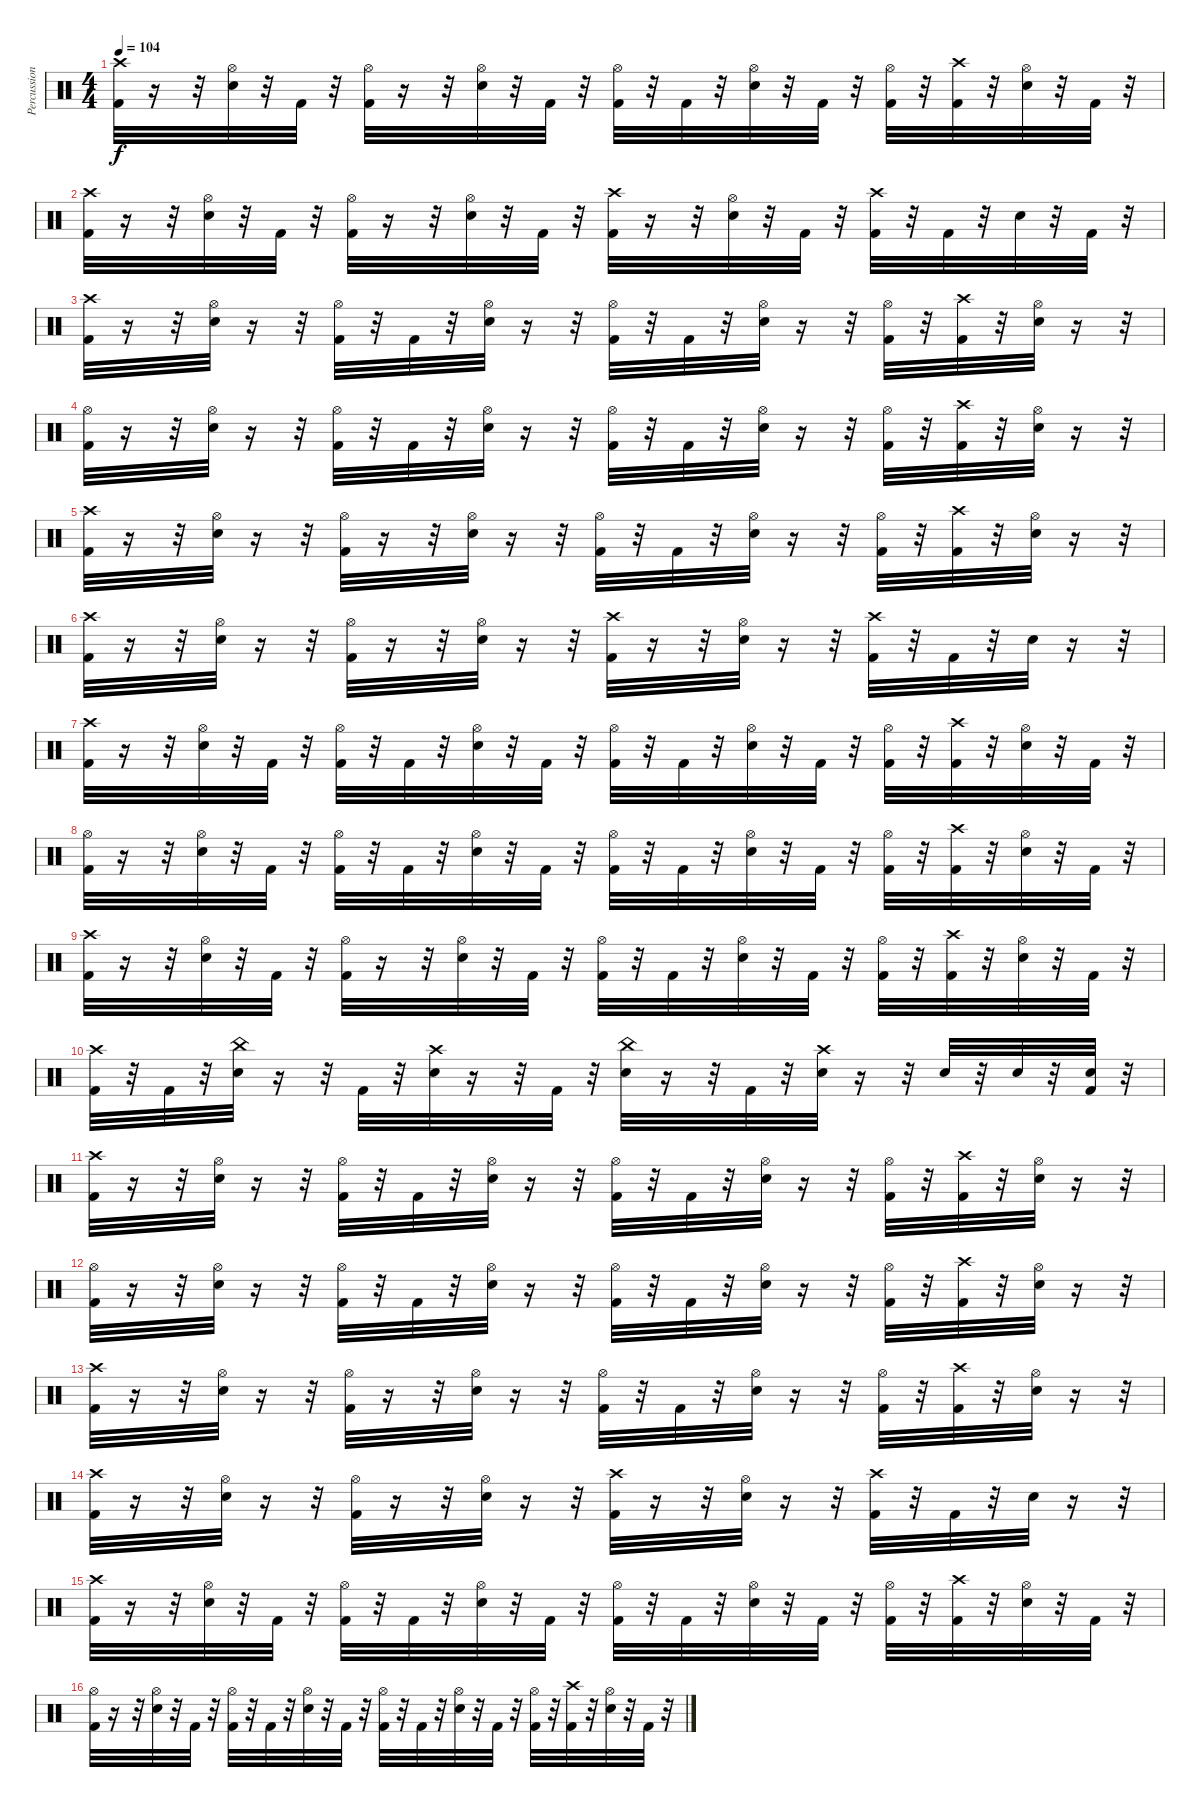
\track ("Percussions" "Percussion") {instrument percussion}
\staff {score}
\articulation defaults
\ts (4 4)
\tempo 104
\clef neutral
\ks c
("Crash high (hit)" "Kick (hit) 2").32{dy f} r.16 r.32 ("Snare (hit) 2" "Hi-Hat (open)").32 r.32 "Kick (hit) 2".32 r.32 ("Hi-Hat (open)" "Kick (hit) 2").32 r.16 r.32 ("Hi-Hat (open)" "Snare (hit) 2").32 r.32 "Kick (hit) 2".32 r.32 ("Hi-Hat (open)" "Kick (hit) 2").32 r.32 "Kick (hit) 2".32 r.32 ("Snare (hit) 2" "Hi-Hat (open)").32 r.32 "Kick (hit) 2".32 r.32 ("Hi-Hat (open)" "Kick (hit) 2").32 r.32 ("Kick (hit) 2" "Crash high (hit)").32 r.32 ("Hi-Hat (open)" "Snare (hit) 2").32 r.32 "Kick (hit) 2".32 r.32 |
("Crash high (hit)" "Kick (hit) 2").32 r.16 r.32 ("Hi-Hat (open)" "Snare (hit) 2").32 r.32 "Kick (hit) 2".32 r.32 ("Kick (hit) 2" "Hi-Hat (open)").32 r.16 r.32 ("Hi-Hat (open)" "Snare (hit) 2").32 r.32 "Kick (hit) 2".32 r.32 ("Crash high (hit)" "Kick (hit) 2").32 r.16 r.32 ("Hi-Hat (open)" "Snare (hit) 2").32 r.32 "Kick (hit) 2".32 r.32 ("Kick (hit) 2" "Crash high (hit)").32 r.32 "Kick (hit) 2".32 r.32 "Snare (hit) 2".32 r.32 "Kick (hit) 2".32 r.32 |
("Crash high (hit)" "Kick (hit) 2").32 r.16 r.32 ("Snare (hit) 2" "Hi-Hat (open)").32 r.16 r.32 ("Kick (hit) 2" "Hi-Hat (open)").32 r.32 "Kick (hit) 2".32 r.32 ("Hi-Hat (open)" "Snare (hit) 2").32 r.16 r.32 ("Kick (hit) 2" "Hi-Hat (open)").32 r.32 "Kick (hit) 2".32 r.32 ("Hi-Hat (open)" "Snare (hit) 2").32 r.16 r.32 ("Kick (hit) 2" "Hi-Hat (open)").32 r.32 ("Kick (hit) 2" "Crash high (hit)").32 r.32 ("Snare (hit) 2" "Hi-Hat (open)").32 r.16 r.32 |
("Hi-Hat (open)" "Kick (hit) 2").32 r.16 r.32 ("Hi-Hat (open)" "Snare (hit) 2").32 r.16 r.32 ("Hi-Hat (open)" "Kick (hit) 2").32 r.32 "Kick (hit) 2".32 r.32 ("Snare (hit) 2" "Hi-Hat (open)").32 r.16 r.32 ("Kick (hit) 2" "Hi-Hat (open)").32 r.32 "Kick (hit) 2".32 r.32 ("Snare (hit) 2" "Hi-Hat (open)").32 r.16 r.32 ("Kick (hit) 2" "Hi-Hat (open)").32 r.32 ("Crash high (hit)" "Kick (hit) 2").32 r.32 ("Snare (hit) 2" "Hi-Hat (open)").32 r.16 r.32 |
("Crash high (hit)" "Kick (hit) 2").32 r.16 r.32 ("Snare (hit) 2" "Hi-Hat (open)").32 r.16 r.32 ("Hi-Hat (open)" "Kick (hit) 2").32 r.16 r.32 ("Hi-Hat (open)" "Snare (hit) 2").32 r.16 r.32 ("Hi-Hat (open)" "Kick (hit) 2").32 r.32 "Kick (hit) 2".32 r.32 ("Snare (hit) 2" "Hi-Hat (open)").32 r.16 r.32 ("Hi-Hat (open)" "Kick (hit) 2").32 r.32 ("Kick (hit) 2" "Crash high (hit)").32 r.32 ("Hi-Hat (open)" "Snare (hit) 2").32 r.16 r.32 |
("Crash high (hit)" "Kick (hit) 2").32 r.16 r.32 ("Hi-Hat (open)" "Snare (hit) 2").32 r.16 r.32 ("Kick (hit) 2" "Hi-Hat (open)").32 r.16 r.32 ("Hi-Hat (open)" "Snare (hit) 2").32 r.16 r.32 ("Crash high (hit)" "Kick (hit) 2").32 r.16 r.32 ("Hi-Hat (open)" "Snare (hit) 2").32 r.16 r.32 ("Kick (hit) 2" "Crash high (hit)").32 r.32 "Kick (hit) 2".32 r.32 "Snare (hit) 2".32 r.16 r.32 |
("Crash high (hit)" "Kick (hit) 2").32 r.16 r.32 ("Snare (hit) 2" "Hi-Hat (open)").32 r.32 "Kick (hit) 2".32 r.32 ("Kick (hit) 2" "Hi-Hat (open)").32 r.32 "Kick (hit) 2".32 r.32 ("Hi-Hat (open)" "Snare (hit) 2").32 r.32 "Kick (hit) 2".32 r.32 ("Kick (hit) 2" "Hi-Hat (open)").32 r.32 "Kick (hit) 2".32 r.32 ("Hi-Hat (open)" "Snare (hit) 2").32 r.32 "Kick (hit) 2".32 r.32 ("Kick (hit) 2" "Hi-Hat (open)").32 r.32 ("Kick (hit) 2" "Crash high (hit)").32 r.32 ("Snare (hit) 2" "Hi-Hat (open)").32 r.32 "Kick (hit) 2".32 r.32 |
("Hi-Hat (open)" "Kick (hit) 2").32 r.16 r.32 ("Hi-Hat (open)" "Snare (hit) 2").32 r.32 "Kick (hit) 2".32 r.32 ("Hi-Hat (open)" "Kick (hit) 2").32 r.32 "Kick (hit) 2".32 r.32 ("Snare (hit) 2" "Hi-Hat (open)").32 r.32 "Kick (hit) 2".32 r.32 ("Kick (hit) 2" "Hi-Hat (open)").32 r.32 "Kick (hit) 2".32 r.32 ("Snare (hit) 2" "Hi-Hat (open)").32 r.32 "Kick (hit) 2".32 r.32 ("Kick (hit) 2" "Hi-Hat (open)").32 r.32 ("Crash high (hit)" "Kick (hit) 2").32 r.32 ("Snare (hit) 2" "Hi-Hat (open)").32 r.32 "Kick (hit) 2".32 r.32 |
("Crash high (hit)" "Kick (hit) 2").32 r.16 r.32 ("Snare (hit) 2" "Hi-Hat (open)").32 r.32 "Kick (hit) 2".32 r.32 ("Hi-Hat (open)" "Kick (hit) 2").32 r.16 r.32 ("Hi-Hat (open)" "Snare (hit) 2").32 r.32 "Kick (hit) 2".32 r.32 ("Hi-Hat (open)" "Kick (hit) 2").32 r.32 "Kick (hit) 2".32 r.32 ("Snare (hit) 2" "Hi-Hat (open)").32 r.32 "Kick (hit) 2".32 r.32 ("Hi-Hat (open)" "Kick (hit) 2").32 r.32 ("Kick (hit) 2" "Crash high (hit)").32 r.32 ("Hi-Hat (open)" "Snare (hit) 2").32 r.32 "Kick (hit) 2".32 r.32 |
("Crash high (hit)" "Kick (hit) 2").32 r.32 "Kick (hit) 2".32 r.32 ("China (hit)" "Snare (hit) 2").32 r.16 r.32 "Kick (hit) 2".32 r.32 ("Snare (hit) 2" "Crash high (hit)").32 r.16 r.32 "Kick (hit) 2".32 r.32 ("Snare (hit) 2" "China (hit)").32 r.16 r.32 "Kick (hit) 2".32 r.32 ("Snare (hit) 2" "Crash high (hit)").32 r.16 r.32 "Snare (hit) 2".32 r.32 "Snare (hit) 2".32 r.32 ("Snare (hit) 2" "Kick (hit) 2").32 r.32 |
("Crash high (hit)" "Kick (hit) 2").32 r.16 r.32 ("Snare (hit) 2" "Hi-Hat (open)").32 r.16 r.32 ("Kick (hit) 2" "Hi-Hat (open)").32 r.32 "Kick (hit) 2".32 r.32 ("Hi-Hat (open)" "Snare (hit) 2").32 r.16 r.32 ("Kick (hit) 2" "Hi-Hat (open)").32 r.32 "Kick (hit) 2".32 r.32 ("Hi-Hat (open)" "Snare (hit) 2").32 r.16 r.32 ("Kick (hit) 2" "Hi-Hat (open)").32 r.32 ("Kick (hit) 2" "Crash high (hit)").32 r.32 ("Snare (hit) 2" "Hi-Hat (open)").32 r.16 r.32 |
("Hi-Hat (open)" "Kick (hit) 2").32 r.16 r.32 ("Hi-Hat (open)" "Snare (hit) 2").32 r.16 r.32 ("Hi-Hat (open)" "Kick (hit) 2").32 r.32 "Kick (hit) 2".32 r.32 ("Snare (hit) 2" "Hi-Hat (open)").32 r.16 r.32 ("Kick (hit) 2" "Hi-Hat (open)").32 r.32 "Kick (hit) 2".32 r.32 ("Snare (hit) 2" "Hi-Hat (open)").32 r.16 r.32 ("Kick (hit) 2" "Hi-Hat (open)").32 r.32 ("Crash high (hit)" "Kick (hit) 2").32 r.32 ("Snare (hit) 2" "Hi-Hat (open)").32 r.16 r.32 |
("Crash high (hit)" "Kick (hit) 2").32 r.16 r.32 ("Snare (hit) 2" "Hi-Hat (open)").32 r.16 r.32 ("Hi-Hat (open)" "Kick (hit) 2").32 r.16 r.32 ("Hi-Hat (open)" "Snare (hit) 2").32 r.16 r.32 ("Hi-Hat (open)" "Kick (hit) 2").32 r.32 "Kick (hit) 2".32 r.32 ("Snare (hit) 2" "Hi-Hat (open)").32 r.16 r.32 ("Hi-Hat (open)" "Kick (hit) 2").32 r.32 ("Kick (hit) 2" "Crash high (hit)").32 r.32 ("Hi-Hat (open)" "Snare (hit) 2").32 r.16 r.32 |
("Crash high (hit)" "Kick (hit) 2").32 r.16 r.32 ("Hi-Hat (open)" "Snare (hit) 2").32 r.16 r.32 ("Kick (hit) 2" "Hi-Hat (open)").32 r.16 r.32 ("Hi-Hat (open)" "Snare (hit) 2").32 r.16 r.32 ("Crash high (hit)" "Kick (hit) 2").32 r.16 r.32 ("Hi-Hat (open)" "Snare (hit) 2").32 r.16 r.32 ("Kick (hit) 2" "Crash high (hit)").32 r.32 "Kick (hit) 2".32 r.32 "Snare (hit) 2".32 r.16 r.32 |
("Crash high (hit)" "Kick (hit) 2").32 r.16 r.32 ("Snare (hit) 2" "Hi-Hat (open)").32 r.32 "Kick (hit) 2".32 r.32 ("Kick (hit) 2" "Hi-Hat (open)").32 r.32 "Kick (hit) 2".32 r.32 ("Hi-Hat (open)" "Snare (hit) 2").32 r.32 "Kick (hit) 2".32 r.32 ("Kick (hit) 2" "Hi-Hat (open)").32 r.32 "Kick (hit) 2".32 r.32 ("Hi-Hat (open)" "Snare (hit) 2").32 r.32 "Kick (hit) 2".32 r.32 ("Kick (hit) 2" "Hi-Hat (open)").32 r.32 ("Kick (hit) 2" "Crash high (hit)").32 r.32 ("Snare (hit) 2" "Hi-Hat (open)").32 r.32 "Kick (hit) 2".32 r.32 |
("Hi-Hat (open)" "Kick (hit) 2").32 r.16 r.32 ("Hi-Hat (open)" "Snare (hit) 2").32 r.32 "Kick (hit) 2".32 r.32 ("Hi-Hat (open)" "Kick (hit) 2").32 r.32 "Kick (hit) 2".32 r.32 ("Snare (hit) 2" "Hi-Hat (open)").32 r.32 "Kick (hit) 2".32 r.32 ("Kick (hit) 2" "Hi-Hat (open)").32 r.32 "Kick (hit) 2".32 r.32 ("Snare (hit) 2" "Hi-Hat (open)").32 r.32 "Kick (hit) 2".32 r.32 ("Kick (hit) 2" "Hi-Hat (open)").32 r.32 ("Crash high (hit)" "Kick (hit) 2").32 r.32 ("Snare (hit) 2" "Hi-Hat (open)").32 r.32 "Kick (hit) 2".32 r.32
